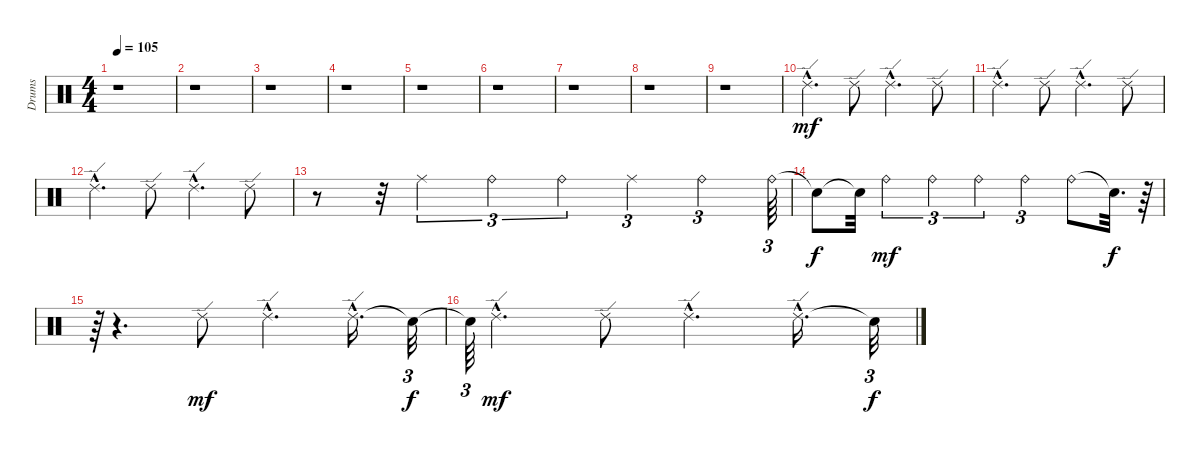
\track ("Drums" "Drums") {instrument percussion}
\staff {score}
\articulation defaults
\ts (4 4)
\tempo 105
\clef neutral
\ks c
r.1{dy mp} |
r.1 |
r.1 |
r.1 |
r.1 |
r.1 |
r.1 |
r.1 |
r.1 |
"Ride (edge) 2"{hac}.4{d dy mf} "Ride (edge) 2".8 "Ride (edge) 2"{hac}.4{d} "Ride (edge) 2".8 |
"Ride (edge) 2"{hac}.4{d} "Ride (edge) 2".8 "Ride (edge) 2"{hac}.4{d} "Ride (edge) 2".8 |
"Ride (edge) 2"{hac}.4{d} "Ride (edge) 2".8 "Ride (edge) 2"{hac}.4{d} "Ride (edge) 2".8 |
r.8 r.32 "Ride (middle)".4{tu (3 2)} "Ride (bell)".4{tu (3 2)} "Ride (bell)".4{tu (3 2)} "Ride (middle)".4{tu (3 2)} "Ride (bell)".4{tu (3 2)} "Ride (bell)".64{tu (3 2)} |
"Snare (hit)"{t}.8{dy f} "Snare (hit)"{t}.32 "Ride (bell)".4{tu (3 2) dy mf} "Ride (bell)".4{tu (3 2)} "Ride (bell)".4{tu (3 2)} "Ride (bell)".4{tu (3 2)} "Ride (bell)".8 "Snare (hit)"{t}.32{d dy f} r.64 |
r.64{tu (3 2)} r.4{d} "Ride (edge) 2".8{dy mf} "Ride (edge) 2"{hac}.4{d} "Ride (edge) 2"{hac}.16{d} "Snare (hit)"{t}.32{tu (3 2) dy f} |
"Snare (hit)"{t}.64{tu (3 2)} "Ride (edge) 2"{hac}.4{d dy mf} "Ride (edge) 2".8 "Ride (edge) 2"{hac}.4{d} "Ride (edge) 2"{hac}.16{d} "Snare (hit)"{t}.32{tu (3 2) dy f}
